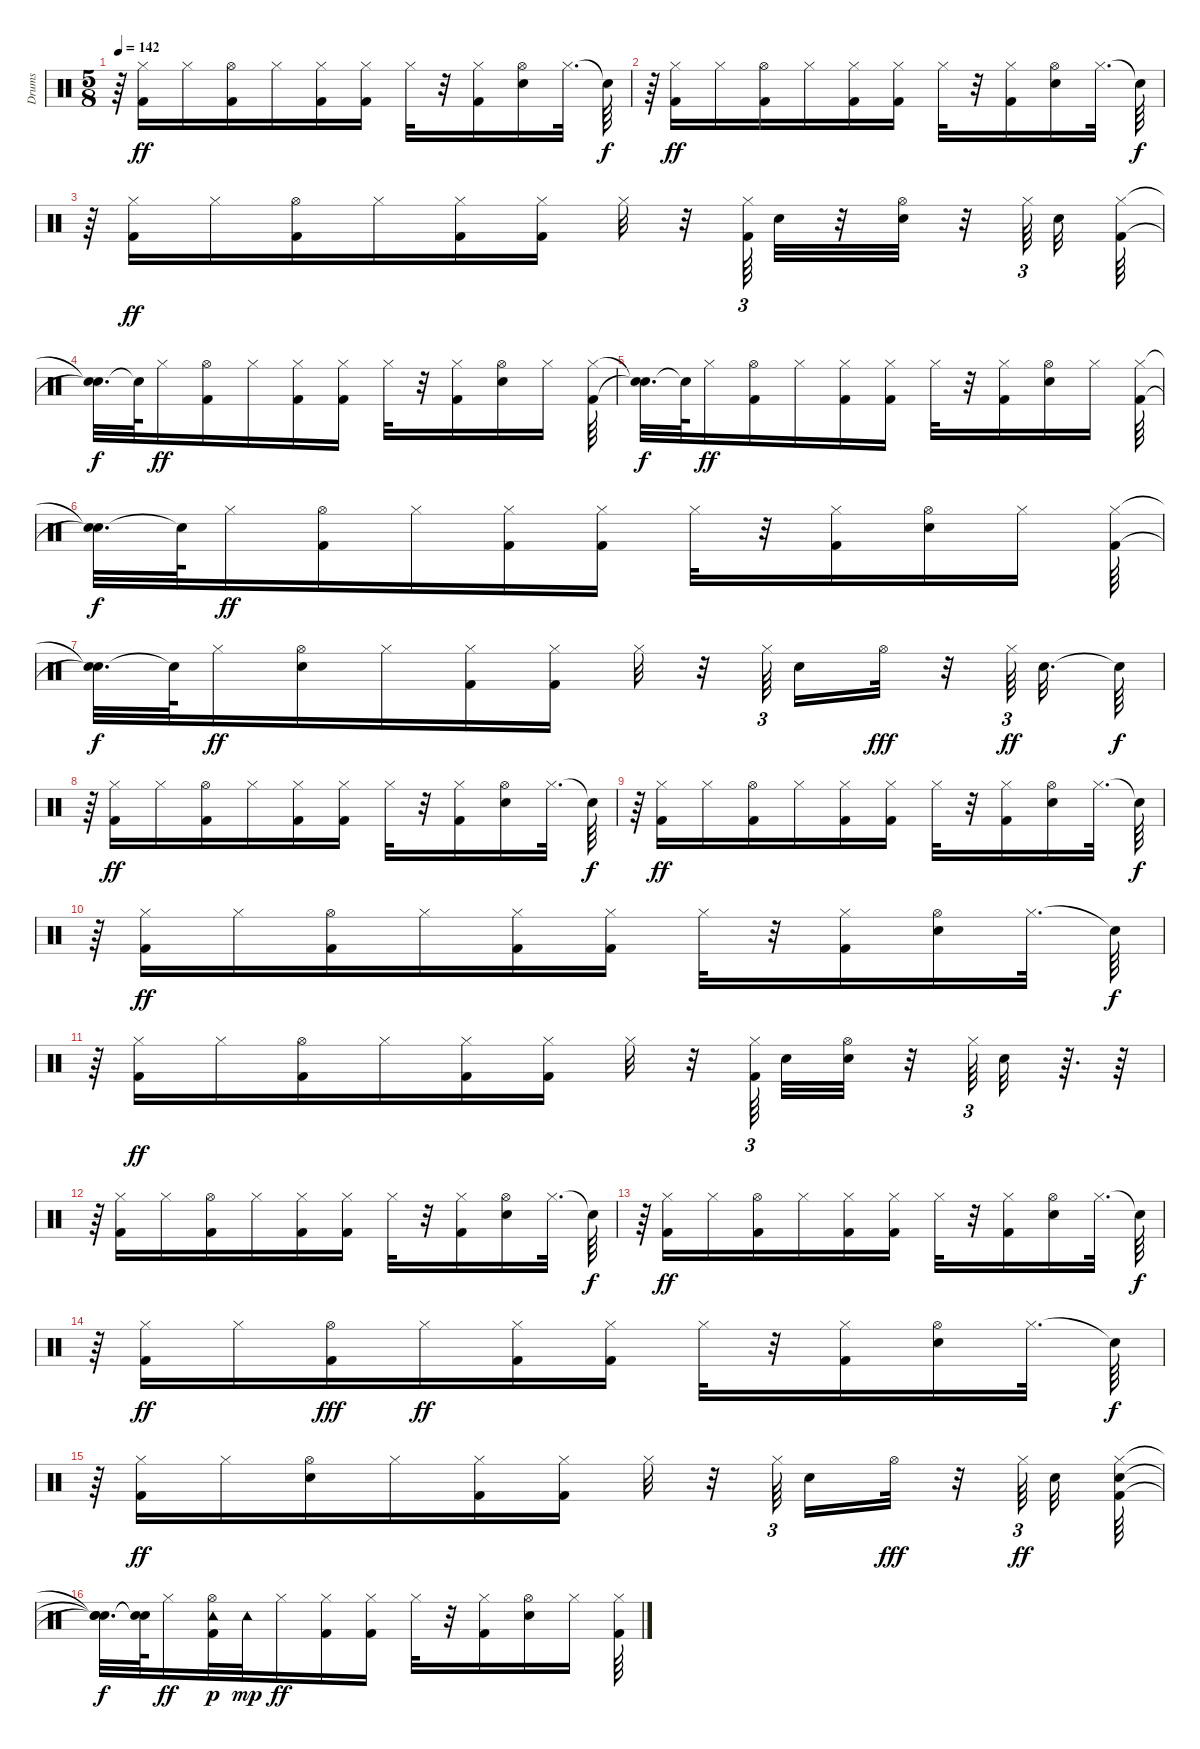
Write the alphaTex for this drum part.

\track ("Drums                               " "Drums     ") {instrument percussion}
\staff {score}
\articulation defaults
\ts (5 8)
\tempo 142
\clef neutral
\ks c
r.64{dy f} ("Hi-Hat (closed)" "Kick (hit) 2").16{dy ff} "Hi-Hat (closed)".16 ("Hi-Hat (open)" "Kick (hit) 2").16 "Hi-Hat (closed)".16 ("Hi-Hat (closed)" "Kick (hit) 2").16 ("Kick (hit) 2" "Hi-Hat (closed)").16 "Hi-Hat (closed)".32 r.32 ("Kick (hit) 2" "Hi-Hat (closed)").16 ("Hi-Hat (open)" "Snare (hit) 2").16 "Hi-Hat (closed)".32{d} "Snare (hit)"{t}.64{dy f} |
r.64 ("Kick (hit) 2" "Hi-Hat (closed)").16{dy ff} "Hi-Hat (closed)".16 ("Hi-Hat (open)" "Kick (hit) 2").16 "Hi-Hat (closed)".16 ("Hi-Hat (closed)" "Kick (hit) 2").16 ("Kick (hit) 2" "Hi-Hat (closed)").16 "Hi-Hat (closed)".32 r.32 ("Kick (hit) 2" "Hi-Hat (closed)").16 ("Snare (hit) 2" "Hi-Hat (open)").16 "Hi-Hat (closed)".32{d} "Snare (hit)"{t}.64{dy f} |
r.64 ("Kick (hit) 2" "Hi-Hat (closed)").16{dy ff} "Hi-Hat (closed)".16 ("Hi-Hat (open)" "Kick (hit) 2").16 "Hi-Hat (closed)".16 ("Kick (hit) 2" "Hi-Hat (closed)").16 ("Kick (hit) 2" "Hi-Hat (closed)").16 "Hi-Hat (closed)".32 r.32 ("Kick (hit) 2" "Hi-Hat (closed)").64{tu (3 2)} "Snare (hit) 2".32 r.32 ("Hi-Hat (open)" "Snare (hit) 2").32 r.32 "Hi-Hat (closed)".64{tu (3 2)} "Snare (hit) 2".32 ("Hi-Hat (closed)" "Kick (hit) 2").64 |
("Snare (hit)"{t} "Snare (hit)"{t}).32{d dy f} "Snare (hit)"{t}.64 "Hi-Hat (closed)".16{dy ff} ("Hi-Hat (open)" "Kick (hit) 2").16 "Hi-Hat (closed)".16 ("Hi-Hat (closed)" "Kick (hit) 2").16 ("Kick (hit) 2" "Hi-Hat (closed)").16 "Hi-Hat (closed)".32 r.32 ("Kick (hit) 2" "Hi-Hat (closed)").16 ("Hi-Hat (open)" "Snare (hit) 2").16 "Hi-Hat (closed)".16 ("Hi-Hat (closed)" "Kick (hit) 2").64 |
("Snare (hit)"{t} "Snare (hit)"{t}).32{d dy f} "Snare (hit)"{t}.64 "Hi-Hat (closed)".16{dy ff} ("Hi-Hat (open)" "Kick (hit) 2").16 "Hi-Hat (closed)".16 ("Kick (hit) 2" "Hi-Hat (closed)").16 ("Kick (hit) 2" "Hi-Hat (closed)").16 "Hi-Hat (closed)".32 r.32 ("Kick (hit) 2" "Hi-Hat (closed)").16 ("Snare (hit) 2" "Hi-Hat (open)").16 "Hi-Hat (closed)".16 ("Hi-Hat (closed)" "Kick (hit) 2").64 |
("Snare (hit)"{t} "Snare (hit)"{t}).32{d dy f} "Snare (hit)"{t}.64 "Hi-Hat (closed)".16{dy ff} ("Hi-Hat (open)" "Kick (hit) 2").16 "Hi-Hat (closed)".16 ("Hi-Hat (closed)" "Kick (hit) 2").16 ("Kick (hit) 2" "Hi-Hat (closed)").16 "Hi-Hat (closed)".32 r.32 ("Kick (hit) 2" "Hi-Hat (closed)").16 ("Hi-Hat (open)" "Snare (hit) 2").16 "Hi-Hat (closed)".16 ("Hi-Hat (closed)" "Kick (hit) 2").64 |
("Snare (hit)"{t} "Snare (hit)"{t}).32{d dy f} "Snare (hit)"{t}.64 "Hi-Hat (closed)".16{dy ff} ("Hi-Hat (open)" "Snare (hit) 2").16 "Hi-Hat (closed)".16 ("Kick (hit) 2" "Hi-Hat (closed)").16 ("Kick (hit) 2" "Hi-Hat (closed)").16 "Hi-Hat (closed)".32 r.32 "Hi-Hat (closed)".64{tu (3 2)} "Snare (hit) 2".16 "Hi-Hat (open)".32{dy fff} r.32 "Hi-Hat (closed)".64{tu (3 2) dy ff} "Snare (hit) 2".32{d} "Snare (hit)"{t}.64{dy f} |
r.64 ("Kick (hit) 2" "Hi-Hat (closed)").16{dy ff} "Hi-Hat (closed)".16 ("Hi-Hat (open)" "Kick (hit) 2").16 "Hi-Hat (closed)".16 ("Kick (hit) 2" "Hi-Hat (closed)").16 ("Kick (hit) 2" "Hi-Hat (closed)").16 "Hi-Hat (closed)".32 r.32 ("Kick (hit) 2" "Hi-Hat (closed)").16 ("Hi-Hat (open)" "Snare (hit) 2").16 "Hi-Hat (closed)".32{d} "Snare (hit)"{t}.64{dy f} |
r.64 ("Hi-Hat (closed)" "Kick (hit) 2").16{dy ff} "Hi-Hat (closed)".16 ("Kick (hit) 2" "Hi-Hat (open)").16 "Hi-Hat (closed)".16 ("Kick (hit) 2" "Hi-Hat (closed)").16 ("Kick (hit) 2" "Hi-Hat (closed)").16 "Hi-Hat (closed)".32 r.32 ("Kick (hit) 2" "Hi-Hat (closed)").16 ("Hi-Hat (open)" "Snare (hit) 2").16 "Hi-Hat (closed)".32{d} "Snare (hit)"{t}.64{dy f} |
r.64 ("Hi-Hat (closed)" "Kick (hit) 2").16{dy ff} "Hi-Hat (closed)".16 ("Kick (hit) 2" "Hi-Hat (open)").16 "Hi-Hat (closed)".16 ("Kick (hit) 2" "Hi-Hat (closed)").16 ("Kick (hit) 2" "Hi-Hat (closed)").16 "Hi-Hat (closed)".32 r.32 ("Kick (hit) 2" "Hi-Hat (closed)").16 ("Hi-Hat (open)" "Snare (hit) 2").16 "Hi-Hat (closed)".32{d} "Snare (hit)"{t}.64{dy f} |
r.64 ("Kick (hit) 2" "Hi-Hat (closed)").16{dy ff} "Hi-Hat (closed)".16 ("Kick (hit) 2" "Hi-Hat (open)").16 "Hi-Hat (closed)".16 ("Kick (hit) 2" "Hi-Hat (closed)").16 ("Kick (hit) 2" "Hi-Hat (closed)").16 "Hi-Hat (closed)".32 r.32 ("Kick (hit) 2" "Hi-Hat (closed)").64{tu (3 2)} "Snare (hit) 2".32 ("Snare (hit) 2" "Hi-Hat (open)").32 r.32 "Hi-Hat (closed)".64{tu (3 2)} "Snare (hit) 2".32 r.64{d} r.64 |
r.64 ("Kick (hit) 2" "Hi-Hat (closed)").16 "Hi-Hat (closed)".16 ("Hi-Hat (open)" "Kick (hit) 2").16 "Hi-Hat (closed)".16 ("Kick (hit) 2" "Hi-Hat (closed)").16 ("Kick (hit) 2" "Hi-Hat (closed)").16 "Hi-Hat (closed)".32 r.32 ("Kick (hit) 2" "Hi-Hat (closed)").16 ("Hi-Hat (open)" "Snare (hit) 2").16 "Hi-Hat (closed)".32{d} "Snare (hit)"{t}.64{dy f} |
r.64 ("Hi-Hat (closed)" "Kick (hit) 2").16{dy ff} "Hi-Hat (closed)".16 ("Hi-Hat (open)" "Kick (hit) 2").16 "Hi-Hat (closed)".16 ("Kick (hit) 2" "Hi-Hat (closed)").16 ("Kick (hit) 2" "Hi-Hat (closed)").16 "Hi-Hat (closed)".32 r.32 ("Kick (hit) 2" "Hi-Hat (closed)").16 ("Snare (hit) 2" "Hi-Hat (open)").16 "Hi-Hat (closed)".32{d} "Snare (hit)"{t}.64{dy f} |
r.64 ("Kick (hit) 2" "Hi-Hat (closed)").16{dy ff} "Hi-Hat (closed)".16 ("Kick (hit) 2" "Hi-Hat (open)").16{dy fff} "Hi-Hat (closed)".16{dy ff} ("Kick (hit) 2" "Hi-Hat (closed)").16 ("Kick (hit) 2" "Hi-Hat (closed)").16 "Hi-Hat (closed)".32 r.32 ("Kick (hit) 2" "Hi-Hat (closed)").16 ("Hi-Hat (open)" "Snare (hit) 2").16 "Hi-Hat (closed)".32{d} "Snare (hit)"{t}.64{dy f} |
r.64 ("Kick (hit) 2" "Hi-Hat (closed)").16{dy ff} "Hi-Hat (closed)".16 ("Hi-Hat (open)" "Snare (hit) 2").16 "Hi-Hat (closed)".16 ("Hi-Hat (closed)" "Kick (hit) 2").16 ("Kick (hit) 2" "Hi-Hat (closed)").16 "Hi-Hat (closed)".32 r.32 "Hi-Hat (closed)".64{tu (3 2)} "Snare (hit) 2".16 "Hi-Hat (open)".32{dy fff} r.32 "Hi-Hat (closed)".64{tu (3 2) dy ff} "Snare (hit) 2".32 ("Kick (hit) 2" "Hi-Hat (closed)" "Snare (hit) 2").64 |
("Snare (hit)"{t} "Snare (hit)"{t} "Snare (hit)"{t}).32{d dy f} ("Snare (hit)"{t} "Snare (hit)"{t}).64 "Hi-Hat (closed)".16{dy ff} ("Hi-Hat (open)" "Kick (hit) 2" "Tambourine (hit)").32{dy p} "Tambourine (hit)".32{dy mp} "Hi-Hat (closed)".16{dy ff} ("Kick (hit) 2" "Hi-Hat (closed)").16 ("Kick (hit) 2" "Hi-Hat (closed)").16 "Hi-Hat (closed)".32 r.32 ("Kick (hit) 2" "Hi-Hat (closed)").16 ("Snare (hit) 2" "Hi-Hat (open)").16 "Hi-Hat (closed)".16 ("Hi-Hat (closed)" "Kick (hit) 2").64
